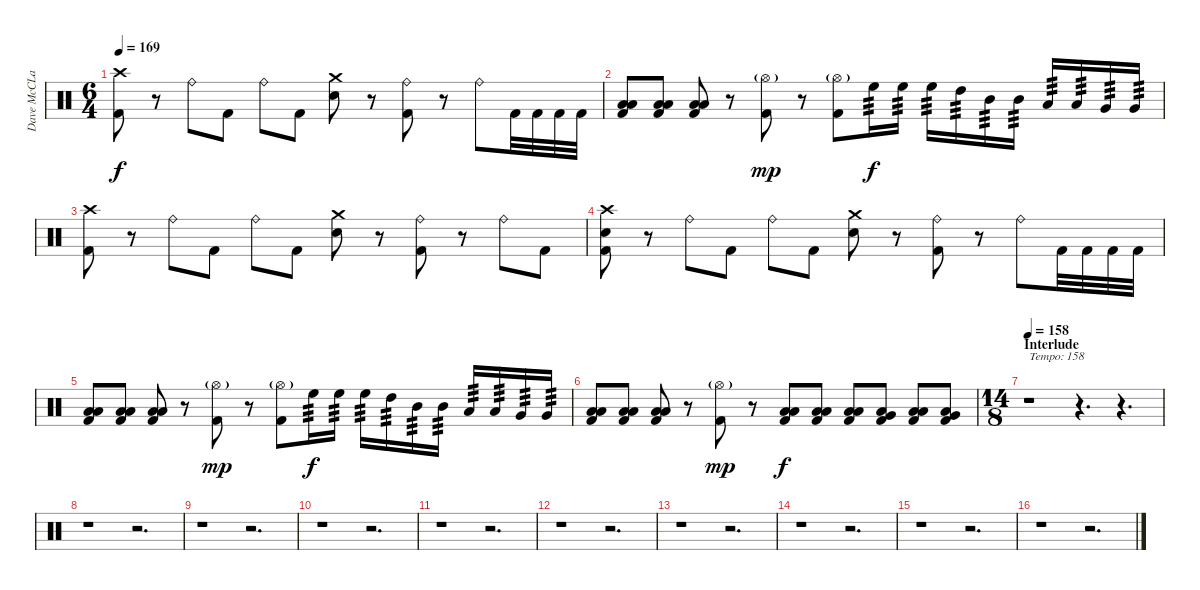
\track ("Dave McCLain" "Dave McCLa") {instrument percussion}
\staff {score}
\articulation defaults
\ts (6 4)
\tempo 169
\clef neutral
\ks c
("Crash high (hit)" "Kick (hit) 2").8{dy f} r.8 "Ride (bell)".8 "Kick (hit) 2".8 "Ride (bell)".8 "Kick (hit) 2".8 ("Crash medium (hit)" "Electric Snare (hit)").8 r.8 ("Ride (bell)" "Kick (hit) 2").8 r.8 "Ride (bell)".8 "Kick (hit) 2".32 "Kick (hit) 2".32 "Kick (hit) 2".32 "Kick (hit) 2".32 |
("Low Floor Tom (hit)" "Low Floor Tom (hit)" "Kick (hit) 2").8 ("Low Floor Tom (hit)" "Low Floor Tom (hit)" "Kick (hit) 2").8 ("Low Floor Tom (hit)" "Low Floor Tom (hit)" "Kick (hit) 2").8 r.8 ("Hi-Hat (open)"{g} "Kick (hit) 2").8{dy mp} r.8 ("Hi-Hat (open)"{g} "Kick (hit) 2").8 "High Floor Tom (hit)".16{tp 3 dy f} "High Floor Tom (hit)".16{tp 3} "High Floor Tom (hit)".16{tp 3} "High Tom (hit)".16{tp 3} "Mid Tom (hit)".16{tp 3} "Mid Tom (hit)".16{tp 3} "Low Tom (hit)".16{tp 3} "Low Tom (hit)".16{tp 3} "Very Low Tom (hit)".16{tp 3} "Very Low Tom (hit)".16{tp 3} |
("Crash high (hit)" "Kick (hit) 2").8 r.8 "Ride (bell)".8 "Kick (hit) 2".8 "Ride (bell)".8 "Kick (hit) 2".8 ("Crash medium (hit)" "Electric Snare (hit)").8 r.8 ("Ride (bell)" "Kick (hit) 2").8 r.8 "Ride (bell)".8 "Kick (hit) 2".8 |
("Crash high (hit)" "Electric Snare (hit)" "Kick (hit) 2").8 r.8 "Ride (bell)".8 "Kick (hit) 2".8 "Ride (bell)".8 "Kick (hit) 2".8 ("Crash medium (hit)" "Electric Snare (hit)").8 r.8 ("Ride (bell)" "Kick (hit) 2").8 r.8 "Ride (bell)".8 "Kick (hit) 2".32 "Kick (hit) 2".32 "Kick (hit) 2".32 "Kick (hit) 2".32 |
("Low Floor Tom (hit)" "Low Floor Tom (hit)" "Kick (hit) 2").8 ("Low Floor Tom (hit)" "Low Floor Tom (hit)" "Kick (hit) 2").8 ("Low Floor Tom (hit)" "Low Floor Tom (hit)" "Kick (hit) 2").8 r.8 ("Hi-Hat (open)"{g} "Kick (hit) 2").8{dy mp} r.8 ("Hi-Hat (open)"{g} "Kick (hit) 2").8 "High Floor Tom (hit)".16{tp 3 dy f} "High Floor Tom (hit)".16{tp 3} "High Floor Tom (hit)".16{tp 3} "High Tom (hit)".16{tp 3} "Mid Tom (hit)".16{tp 3} "Mid Tom (hit)".16{tp 3} "Low Tom (hit)".16{tp 3} "Low Tom (hit)".16{tp 3} "Very Low Tom (hit)".16{tp 3} "Very Low Tom (hit)".16{tp 3} |
("Low Floor Tom (hit)" "Low Floor Tom (hit)" "Kick (hit) 2").8 ("Low Floor Tom (hit)" "Low Floor Tom (hit)" "Kick (hit) 2").8 ("Low Floor Tom (hit)" "Low Floor Tom (hit)" "Kick (hit) 2").8 r.8 ("Hi-Hat (open)"{g} "Kick (hit) 2").8{dy mp} r.8 ("Low Floor Tom (hit)" "Low Floor Tom (hit)" "Kick (hit) 2").8{dy f} ("Low Floor Tom (hit)" "Low Floor Tom (hit)" "Kick (hit) 2").8 ("Low Floor Tom (hit)" "Low Floor Tom (hit)" "Kick (hit) 2").8 ("Very Low Tom (hit)" "Low Floor Tom (hit)" "Kick (hit) 2").8 ("Low Floor Tom (hit)" "Low Floor Tom (hit)" "Kick (hit) 2").8 ("Very Low Tom (hit)" "Low Floor Tom (hit)" "Kick (hit) 2").8 |
\ts (14 8)
\section ("" "Interlude")
\tempo 158
r.1{txt "Tempo: 158"} r.4{d} r.4{d} |
r.1 r.2{d} |
r.1 r.2{d} |
r.1 r.2{d} |
r.1 r.2{d} |
r.1 r.2{d} |
r.1 r.2{d} |
r.1 r.2{d} |
r.1 r.2{d} |
r.1 r.2{d}
